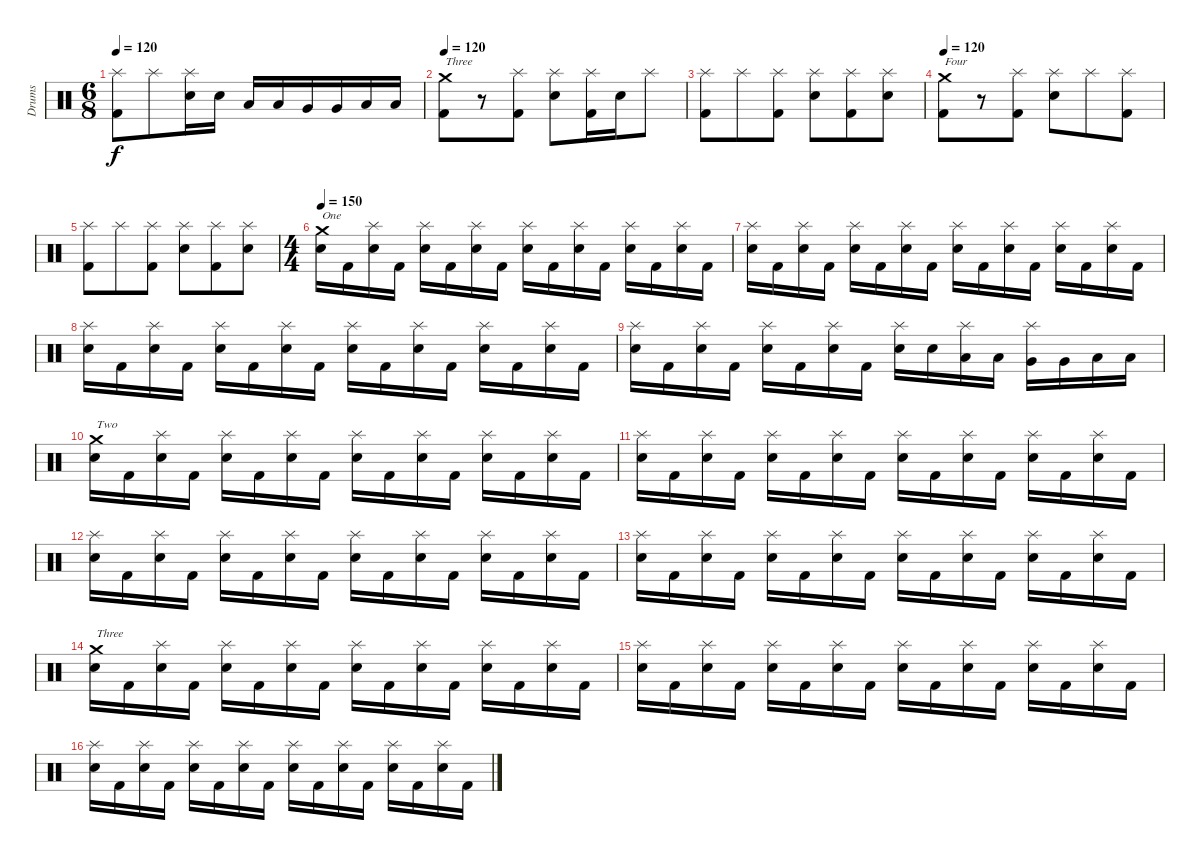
\track ("Drums" "Drums") {instrument percussion}
\staff {score}
\articulation defaults
\ts (6 8)
\tempo 120
\clef neutral
\ks c
("Splash (hit)" "Kick (hit) 2").8{dy f} "Splash (hit)".8 ("Splash (hit)" "Snare (hit) 2").16 "Snare (hit) 2".16 "Low Tom (hit)".16 "Low Tom (hit)".16 "Very Low Tom (hit)".16 "Very Low Tom (hit)".16 "Low Floor Tom (hit)".16 "Low Floor Tom (hit)".16 |
\tempo 120
("Crash medium (hit)" "Kick (hit) 2").8{txt "Three"} r.8 ("Splash (hit)" "Kick (hit) 2").8 ("Splash (hit)" "Snare (hit) 2").8 ("Splash (hit)" "Kick (hit) 2").16 "Snare (hit) 2".16 "Splash (hit)".8 |
("Splash (hit)" "Kick (hit) 2").8 "Splash (hit)".8 ("Splash (hit)" "Kick (hit) 2").8 ("Splash (hit)" "Snare (hit) 2").8 ("Splash (hit)" "Kick (hit) 2").8 ("Splash (hit)" "Snare (hit) 2").8 |
\tempo 120
("Crash medium (hit)" "Kick (hit) 2").8{txt "Four"} r.8 ("Splash (hit)" "Kick (hit) 2").8 ("Splash (hit)" "Snare (hit) 2").8 "Splash (hit)".8 ("Splash (hit)" "Kick (hit) 2").8 |
("Splash (hit)" "Kick (hit) 2").8 "Splash (hit)".8 ("Splash (hit)" "Kick (hit) 2").8 ("Splash (hit)" "Snare (hit) 2").8 ("Splash (hit)" "Kick (hit) 2").8 ("Splash (hit)" "Snare (hit) 2").8 |
\ts (4 4)
\tempo 150
("Crash medium (hit)" "Snare (hit) 2").16{txt "One"} "Kick (hit) 2".16 ("Splash (hit)" "Snare (hit) 2").16 "Kick (hit) 2".16 ("Splash (hit)" "Snare (hit) 2").16 "Kick (hit) 2".16 ("Splash (hit)" "Snare (hit) 2").16 "Kick (hit) 2".16 ("Splash (hit)" "Snare (hit) 2").16 "Kick (hit) 2".16 ("Splash (hit)" "Snare (hit) 2").16 "Kick (hit) 2".16 ("Splash (hit)" "Snare (hit) 2").16 "Kick (hit) 2".16 ("Splash (hit)" "Snare (hit) 2").16 "Kick (hit) 2".16 |
("Splash (hit)" "Snare (hit) 2").16 "Kick (hit) 2".16 ("Splash (hit)" "Snare (hit) 2").16 "Kick (hit) 2".16 ("Splash (hit)" "Snare (hit) 2").16 "Kick (hit) 2".16 ("Splash (hit)" "Snare (hit) 2").16 "Kick (hit) 2".16 ("Splash (hit)" "Snare (hit) 2").16 "Kick (hit) 2".16 ("Splash (hit)" "Snare (hit) 2").16 "Kick (hit) 2".16 ("Splash (hit)" "Snare (hit) 2").16 "Kick (hit) 2".16 ("Splash (hit)" "Snare (hit) 2").16 "Kick (hit) 2".16 |
("Splash (hit)" "Snare (hit) 2").16 "Kick (hit) 2".16 ("Splash (hit)" "Snare (hit) 2").16 "Kick (hit) 2".16 ("Splash (hit)" "Snare (hit) 2").16 "Kick (hit) 2".16 ("Splash (hit)" "Snare (hit) 2").16 "Kick (hit) 2".16 ("Splash (hit)" "Snare (hit) 2").16 "Kick (hit) 2".16 ("Splash (hit)" "Snare (hit) 2").16 "Kick (hit) 2".16 ("Splash (hit)" "Snare (hit) 2").16 "Kick (hit) 2".16 ("Splash (hit)" "Snare (hit) 2").16 "Kick (hit) 2".16 |
("Splash (hit)" "Snare (hit) 2").16 "Kick (hit) 2".16 ("Splash (hit)" "Snare (hit) 2").16 "Kick (hit) 2".16 ("Splash (hit)" "Snare (hit) 2").16 "Kick (hit) 2".16 ("Splash (hit)" "Snare (hit) 2").16 "Kick (hit) 2".16 ("Splash (hit)" "Snare (hit) 2").16 "Snare (hit) 2".16 ("Splash (hit)" "Low Tom (hit)").16 "Low Tom (hit)".16 ("Splash (hit)" "Very Low Tom (hit)").16 "Very Low Tom (hit)".16 "Low Floor Tom (hit)".16 "Low Floor Tom (hit)".16 |
("Crash medium (hit)" "Snare (hit) 2").16{txt "Two"} "Kick (hit) 2".16 ("Splash (hit)" "Snare (hit) 2").16 "Kick (hit) 2".16 ("Splash (hit)" "Snare (hit) 2").16 "Kick (hit) 2".16 ("Splash (hit)" "Snare (hit) 2").16 "Kick (hit) 2".16 ("Splash (hit)" "Snare (hit) 2").16 "Kick (hit) 2".16 ("Splash (hit)" "Snare (hit) 2").16 "Kick (hit) 2".16 ("Splash (hit)" "Snare (hit) 2").16 "Kick (hit) 2".16 ("Splash (hit)" "Snare (hit) 2").16 "Kick (hit) 2".16 |
("Splash (hit)" "Snare (hit) 2").16 "Kick (hit) 2".16 ("Splash (hit)" "Snare (hit) 2").16 "Kick (hit) 2".16 ("Splash (hit)" "Snare (hit) 2").16 "Kick (hit) 2".16 ("Splash (hit)" "Snare (hit) 2").16 "Kick (hit) 2".16 ("Splash (hit)" "Snare (hit) 2").16 "Kick (hit) 2".16 ("Splash (hit)" "Snare (hit) 2").16 "Kick (hit) 2".16 ("Splash (hit)" "Snare (hit) 2").16 "Kick (hit) 2".16 ("Splash (hit)" "Snare (hit) 2").16 "Kick (hit) 2".16 |
("Splash (hit)" "Snare (hit) 2").16 "Kick (hit) 2".16 ("Splash (hit)" "Snare (hit) 2").16 "Kick (hit) 2".16 ("Splash (hit)" "Snare (hit) 2").16 "Kick (hit) 2".16 ("Splash (hit)" "Snare (hit) 2").16 "Kick (hit) 2".16 ("Splash (hit)" "Snare (hit) 2").16 "Kick (hit) 2".16 ("Splash (hit)" "Snare (hit) 2").16 "Kick (hit) 2".16 ("Splash (hit)" "Snare (hit) 2").16 "Kick (hit) 2".16 ("Splash (hit)" "Snare (hit) 2").16 "Kick (hit) 2".16 |
("Splash (hit)" "Snare (hit) 2").16 "Kick (hit) 2".16 ("Splash (hit)" "Snare (hit) 2").16 "Kick (hit) 2".16 ("Splash (hit)" "Snare (hit) 2").16 "Kick (hit) 2".16 ("Splash (hit)" "Snare (hit) 2").16 "Kick (hit) 2".16 ("Splash (hit)" "Snare (hit) 2").16 "Kick (hit) 2".16 ("Splash (hit)" "Snare (hit) 2").16 "Kick (hit) 2".16 ("Splash (hit)" "Snare (hit) 2").16 "Kick (hit) 2".16 ("Splash (hit)" "Snare (hit) 2").16 "Kick (hit) 2".16 |
("Crash medium (hit)" "Snare (hit) 2").16{txt "Three"} "Kick (hit) 2".16 ("Splash (hit)" "Snare (hit) 2").16 "Kick (hit) 2".16 ("Splash (hit)" "Snare (hit) 2").16 "Kick (hit) 2".16 ("Splash (hit)" "Snare (hit) 2").16 "Kick (hit) 2".16 ("Splash (hit)" "Snare (hit) 2").16 "Kick (hit) 2".16 ("Splash (hit)" "Snare (hit) 2").16 "Kick (hit) 2".16 ("Splash (hit)" "Snare (hit) 2").16 "Kick (hit) 2".16 ("Splash (hit)" "Snare (hit) 2").16 "Kick (hit) 2".16 |
("Splash (hit)" "Snare (hit) 2").16 "Kick (hit) 2".16 ("Splash (hit)" "Snare (hit) 2").16 "Kick (hit) 2".16 ("Splash (hit)" "Snare (hit) 2").16 "Kick (hit) 2".16 ("Splash (hit)" "Snare (hit) 2").16 "Kick (hit) 2".16 ("Splash (hit)" "Snare (hit) 2").16 "Kick (hit) 2".16 ("Splash (hit)" "Snare (hit) 2").16 "Kick (hit) 2".16 ("Splash (hit)" "Snare (hit) 2").16 "Kick (hit) 2".16 ("Splash (hit)" "Snare (hit) 2").16 "Kick (hit) 2".16 |
("Splash (hit)" "Snare (hit) 2").16 "Kick (hit) 2".16 ("Splash (hit)" "Snare (hit) 2").16 "Kick (hit) 2".16 ("Splash (hit)" "Snare (hit) 2").16 "Kick (hit) 2".16 ("Splash (hit)" "Snare (hit) 2").16 "Kick (hit) 2".16 ("Splash (hit)" "Snare (hit) 2").16 "Kick (hit) 2".16 ("Splash (hit)" "Snare (hit) 2").16 "Kick (hit) 2".16 ("Splash (hit)" "Snare (hit) 2").16 "Kick (hit) 2".16 ("Splash (hit)" "Snare (hit) 2").16 "Kick (hit) 2".16
